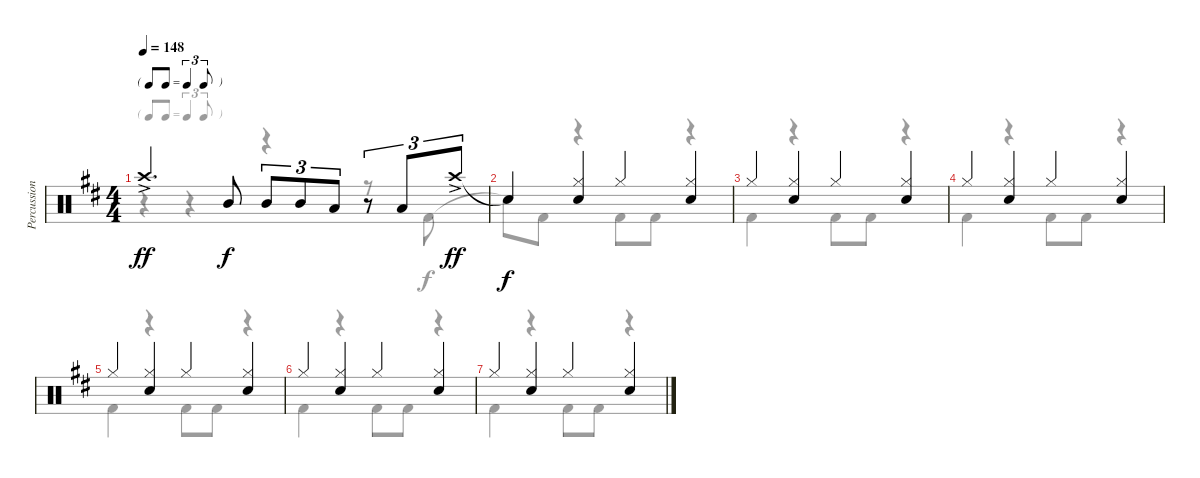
\track ("Percussion" "Percussion") {instrument percussion}
\staff {score}
\articulation defaults
\voice
\ts (4 4)
\tf triplet8th
\tempo 148
\clef neutral
\ks bminor "Crash high (hit)"{ac}.4{d dy ff} "Mid Tom (hit)".8{dy f} "Mid Tom (hit)".8{tu (3 2)} "Mid Tom (hit)".8{tu (3 2)} "Low Tom (hit)".8{tu (3 2)}
r.8{tu (3 2)} "Low Tom (hit)".8{tu (3 2)} "Crash high (hit)"{ac}.8{tu (3 2) dy ff} |
"Snare (hit)"{t}.4{dy f} ("Hi-Hat (closed)" "Snare (hit) 2").4 "Hi-Hat (closed)".4 ("Hi-Hat (closed)" "Snare (hit) 2").4 |
"Hi-Hat (closed)".4 ("Hi-Hat (closed)" "Snare (hit) 2").4 "Hi-Hat (closed)".4 ("Hi-Hat (closed)" "Snare (hit) 2").4 |
"Hi-Hat (closed)".4{volume 0} ("Hi-Hat (closed)" "Snare (hit) 2").4 "Hi-Hat (closed)".4 ("Hi-Hat (closed)" "Snare (hit) 2").4 |
"Hi-Hat (closed)".4 ("Hi-Hat (closed)" "Snare (hit) 2").4 "Hi-Hat (closed)".4 ("Hi-Hat (closed)" "Snare (hit) 2").4 |
"Hi-Hat (closed)".4 ("Hi-Hat (closed)" "Snare (hit) 2").4 "Hi-Hat (closed)".4 ("Hi-Hat (closed)" "Snare (hit) 2").4 |
"Hi-Hat (closed)".4 ("Hi-Hat (closed)" "Snare (hit) 2").4 "Hi-Hat (closed)".4 ("Hi-Hat (closed)" "Snare (hit) 2").4
\voice
\clef neutral
\ottava regular
\simile none
\ks bminor
r.4{dy f} r.4 r.4 r.8 "Kick (hit) 2".8 |
"Snare (hit)"{t}.8 "Kick (hit) 2".8 r.4 "Kick (hit) 2".8 "Kick (hit) 2".8 r.4 |
"Kick (hit) 2".4 r.4 "Kick (hit) 2".8 "Kick (hit) 2".8 r.4 |
"Kick (hit) 2".4 r.4 "Kick (hit) 2".8 "Kick (hit) 2".8 r.4 |
"Kick (hit) 2".4 r.4 "Kick (hit) 2".8 "Kick (hit) 2".8 r.4 |
"Kick (hit) 2".4 r.4 "Kick (hit) 2".8 "Kick (hit) 2".8 r.4 |
"Kick (hit) 2".4 r.4 "Kick (hit) 2".8 "Kick (hit) 2".8 r.4
